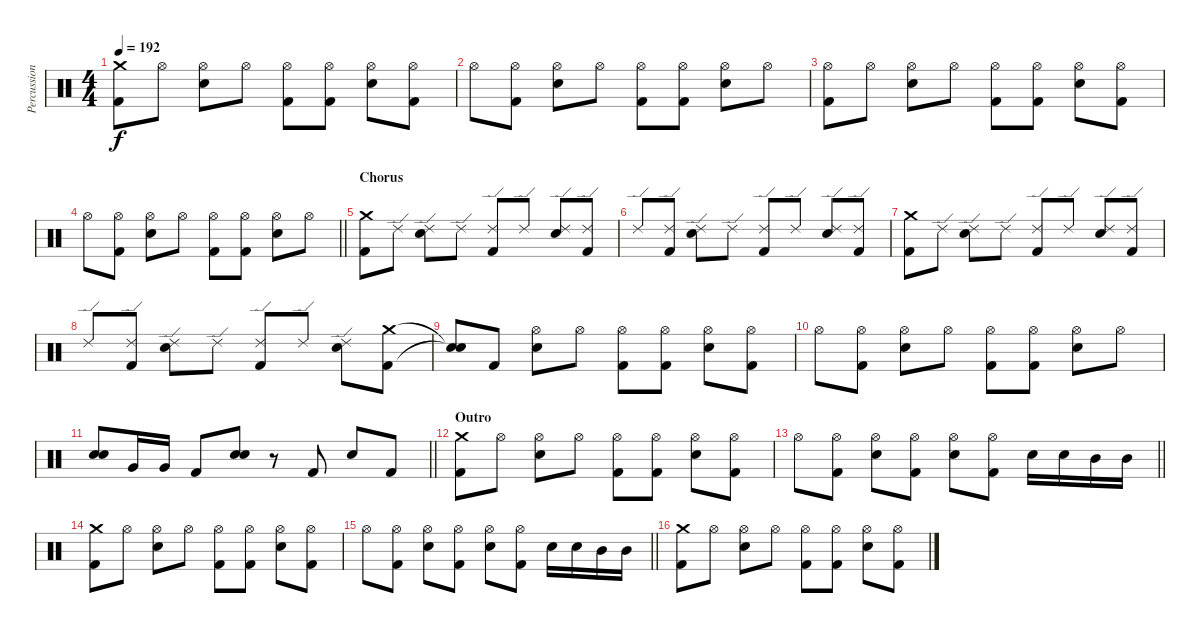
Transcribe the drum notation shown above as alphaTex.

\track ("Percussion" "Percussion") {instrument percussion}
\staff {score}
\articulation defaults
\ts (4 4)
\tempo 192
\clef neutral
\ks c
("Crash medium (hit)" "Kick (hit) 2").8{dy f} "Hi-Hat (open)".8 ("Hi-Hat (open)" "Electric Snare (hit)").8 "Hi-Hat (open)".8 ("Hi-Hat (open)" "Kick (hit) 2").8 ("Hi-Hat (open)" "Kick (hit) 2").8 ("Hi-Hat (open)" "Electric Snare (hit)").8 ("Hi-Hat (open)" "Kick (hit) 2").8 |
"Hi-Hat (open)".8 ("Hi-Hat (open)" "Kick (hit) 2").8 ("Hi-Hat (open)" "Electric Snare (hit)").8 "Hi-Hat (open)".8 ("Hi-Hat (open)" "Kick (hit) 2").8 ("Hi-Hat (open)" "Kick (hit) 2").8 ("Hi-Hat (open)" "Electric Snare (hit)").8 "Hi-Hat (open)".8 |
("Hi-Hat (open)" "Kick (hit) 2").8 "Hi-Hat (open)".8 ("Hi-Hat (open)" "Electric Snare (hit)").8 "Hi-Hat (open)".8 ("Hi-Hat (open)" "Kick (hit) 2").8 ("Hi-Hat (open)" "Kick (hit) 2").8 ("Hi-Hat (open)" "Electric Snare (hit)").8 ("Hi-Hat (open)" "Kick (hit) 2").8 |
\barLineRight lightlight "Hi-Hat (open)".8
("Hi-Hat (open)" "Kick (hit) 2").8 ("Hi-Hat (open)" "Electric Snare (hit)").8 "Hi-Hat (open)".8 ("Hi-Hat (open)" "Kick (hit) 2").8 ("Hi-Hat (open)" "Kick (hit) 2").8 ("Hi-Hat (open)" "Electric Snare (hit)").8 "Hi-Hat (open)".8 |
\section ("" "Chorus")
("Crash medium (hit)" "Kick (hit) 2").8 "Ride (edge) 2".8 ("Ride (edge) 2" "Electric Snare (hit)").8 "Ride (edge) 2".8 ("Ride (edge) 2" "Kick (hit) 2").8 "Ride (edge) 2".8 ("Ride (edge) 2" "Electric Snare (hit)").8 ("Ride (edge) 2" "Kick (hit) 2").8 |
"Ride (edge) 2".8 ("Ride (edge) 2" "Kick (hit) 2").8 ("Ride (edge) 2" "Electric Snare (hit)").8 "Ride (edge) 2".8 ("Ride (edge) 2" "Kick (hit) 2").8 "Ride (edge) 2".8 ("Ride (edge) 2" "Electric Snare (hit)").8 ("Ride (edge) 2" "Kick (hit) 2").8 |
("Crash medium (hit)" "Kick (hit) 2").8 "Ride (edge) 2".8 ("Ride (edge) 2" "Electric Snare (hit)").8 "Ride (edge) 2".8 ("Ride (edge) 2" "Kick (hit) 2").8 "Ride (edge) 2".8 ("Ride (edge) 2" "Electric Snare (hit)").8 ("Ride (edge) 2" "Kick (hit) 2").8 |
"Ride (edge) 2".8 ("Ride (edge) 2" "Kick (hit) 2").8 ("Ride (edge) 2" "Electric Snare (hit)").8 "Ride (edge) 2".8 ("Ride (edge) 2" "Kick (hit) 2").8 "Ride (edge) 2".8 ("Ride (edge) 2" "Electric Snare (hit)").8 ("Crash medium (hit)" "Kick (hit) 2").8 |
("Snare (hit)"{t} "Snare (hit)"{t}).8 "Kick (hit) 2".8 ("Hi-Hat (open)" "Electric Snare (hit)").8 "Hi-Hat (open)".8 ("Hi-Hat (open)" "Kick (hit) 2").8 ("Hi-Hat (open)" "Kick (hit) 2").8 ("Hi-Hat (open)" "Electric Snare (hit)").8 ("Hi-Hat (open)" "Kick (hit) 2").8 |
"Hi-Hat (open)".8 ("Hi-Hat (open)" "Kick (hit) 2").8 ("Hi-Hat (open)" "Electric Snare (hit)").8 "Hi-Hat (open)".8 ("Hi-Hat (open)" "Kick (hit) 2").8 ("Hi-Hat (open)" "Kick (hit) 2").8 ("Hi-Hat (open)" "Electric Snare (hit)").8 "Hi-Hat (open)".8 |
\barLineRight lightlight
("Electric Snare (hit)" "Electric Snare (hit)").8 "Very Low Tom (hit)".16 "Very Low Tom (hit)".16 "Kick (hit) 2".8 ("Electric Snare (hit)" "Electric Snare (hit)").8 r.8 "Kick (hit) 2".8 "Electric Snare (hit)".8 "Kick (hit) 2".8 |
\section ("" "Outro")
("Crash medium (hit)" "Kick (hit) 2").8 "Hi-Hat (open)".8 ("Hi-Hat (open)" "Electric Snare (hit)").8 "Hi-Hat (open)".8 ("Hi-Hat (open)" "Kick (hit) 2").8 ("Hi-Hat (open)" "Kick (hit) 2").8 ("Hi-Hat (open)" "Electric Snare (hit)").8 ("Hi-Hat (open)" "Kick (hit) 2").8 |
\barLineRight lightlight "Hi-Hat (open)".8
("Hi-Hat (open)" "Kick (hit) 2").8 ("Hi-Hat (open)" "Electric Snare (hit)").8 ("Hi-Hat (open)" "Kick (hit) 2").8 ("Hi-Hat (open)" "Electric Snare (hit)").8 ("Hi-Hat (open)" "Kick (hit) 2").8 "Electric Snare (hit)".16 "Electric Snare (hit)".16 "Mid Tom (hit)".16 "Mid Tom (hit)".16 |
("Crash medium (hit)" "Kick (hit) 2").8 "Hi-Hat (open)".8 ("Hi-Hat (open)" "Electric Snare (hit)").8 "Hi-Hat (open)".8 ("Hi-Hat (open)" "Kick (hit) 2").8 ("Hi-Hat (open)" "Kick (hit) 2").8 ("Hi-Hat (open)" "Electric Snare (hit)").8 ("Hi-Hat (open)" "Kick (hit) 2").8 |
\barLineRight lightlight "Hi-Hat (open)".8
("Hi-Hat (open)" "Kick (hit) 2").8 ("Hi-Hat (open)" "Electric Snare (hit)").8 ("Hi-Hat (open)" "Kick (hit) 2").8 ("Hi-Hat (open)" "Electric Snare (hit)").8 ("Hi-Hat (open)" "Kick (hit) 2").8 "Electric Snare (hit)".16 "Electric Snare (hit)".16 "Mid Tom (hit)".16 "Mid Tom (hit)".16 |
("Crash medium (hit)" "Kick (hit) 2").8 "Hi-Hat (open)".8 ("Hi-Hat (open)" "Electric Snare (hit)").8 "Hi-Hat (open)".8 ("Hi-Hat (open)" "Kick (hit) 2").8 ("Hi-Hat (open)" "Kick (hit) 2").8 ("Hi-Hat (open)" "Electric Snare (hit)").8 ("Hi-Hat (open)" "Kick (hit) 2").8
